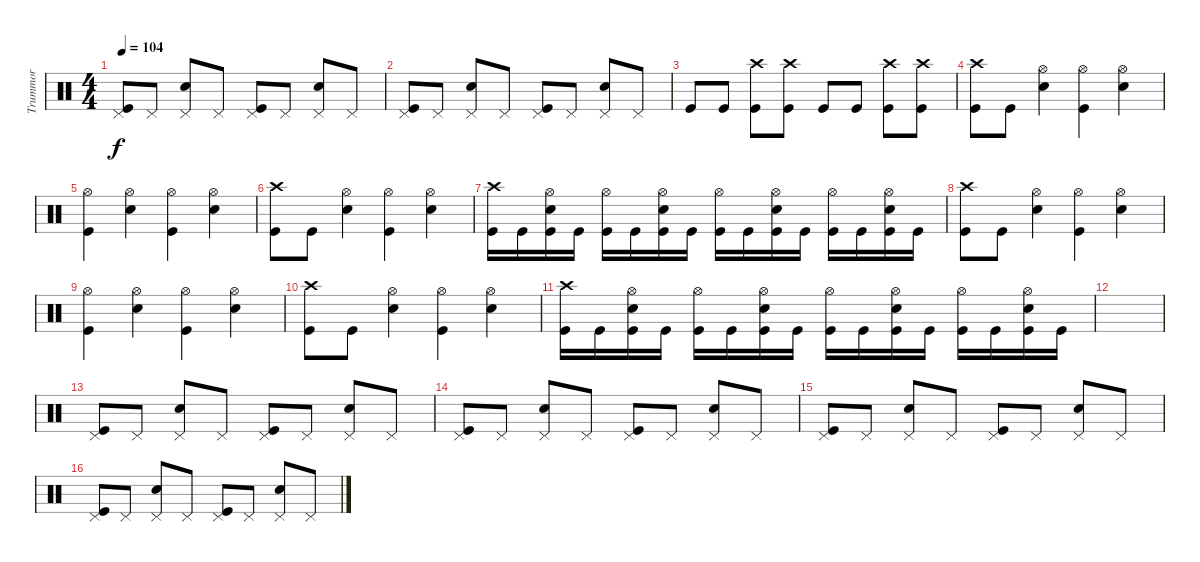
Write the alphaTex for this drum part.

\track ("Trummor" "Trummor") {instrument percussion}
\staff {score}
\articulation defaults
\ts (4 4)
\tempo 104
\clef neutral
\ks c
("Pedal Hi-Hat (hit)" "Kick (hit)").8{dy f} "Pedal Hi-Hat (hit)".8 ("Pedal Hi-Hat (hit)" "Snare (hit) 2").8 "Pedal Hi-Hat (hit)".8 ("Pedal Hi-Hat (hit)" "Kick (hit)").8 "Pedal Hi-Hat (hit)".8 ("Pedal Hi-Hat (hit)" "Snare (hit) 2").8 "Pedal Hi-Hat (hit)".8 |
("Pedal Hi-Hat (hit)" "Kick (hit)").8 "Pedal Hi-Hat (hit)".8 ("Pedal Hi-Hat (hit)" "Snare (hit) 2").8 "Pedal Hi-Hat (hit)".8 ("Pedal Hi-Hat (hit)" "Kick (hit)").8 "Pedal Hi-Hat (hit)".8 ("Pedal Hi-Hat (hit)" "Snare (hit) 2").8 "Pedal Hi-Hat (hit)".8 |
"Kick (hit)".8 "Kick (hit)".8 ("Crash high (hit)" "Kick (hit)").8 ("Crash high (hit)" "Kick (hit)").8 "Kick (hit)".8 "Kick (hit)".8 ("Crash high (hit)" "Kick (hit)").8 ("Crash high (hit)" "Kick (hit)").8 |
("Crash high (hit)" "Kick (hit)").8 "Kick (hit)".8 ("Hi-Hat (open)" "Snare (hit) 2").4 ("Hi-Hat (open)" "Kick (hit)").4 ("Hi-Hat (open)" "Snare (hit) 2").4 |
("Hi-Hat (open)" "Kick (hit)").4 ("Hi-Hat (open)" "Snare (hit) 2").4 ("Hi-Hat (open)" "Kick (hit)").4 ("Hi-Hat (open)" "Snare (hit) 2").4 |
("Crash high (hit)" "Kick (hit)").8 "Kick (hit)".8 ("Hi-Hat (open)" "Snare (hit) 2").4 ("Hi-Hat (open)" "Kick (hit)").4 ("Hi-Hat (open)" "Snare (hit) 2").4 |
("Crash high (hit)" "Kick (hit)").16 "Kick (hit)".16 ("Hi-Hat (open)" "Electric Snare (hit)" "Kick (hit)").16 "Kick (hit)".16 ("Hi-Hat (open)" "Kick (hit)").16 "Kick (hit)".16 ("Hi-Hat (open)" "Electric Snare (hit)" "Kick (hit)").16 "Kick (hit)".16 ("Hi-Hat (open)" "Kick (hit)").16 "Kick (hit)".16 ("Hi-Hat (open)" "Electric Snare (hit)" "Kick (hit)").16 "Kick (hit)".16 ("Hi-Hat (open)" "Kick (hit)").16 "Kick (hit)".16 ("Hi-Hat (open)" "Electric Snare (hit)" "Kick (hit)").16 "Kick (hit)".16 |
("Crash high (hit)" "Kick (hit)").8 "Kick (hit)".8 ("Hi-Hat (open)" "Snare (hit) 2").4 ("Hi-Hat (open)" "Kick (hit)").4 ("Hi-Hat (open)" "Snare (hit) 2").4 |
("Hi-Hat (open)" "Kick (hit)").4 ("Hi-Hat (open)" "Snare (hit) 2").4 ("Hi-Hat (open)" "Kick (hit)").4 ("Hi-Hat (open)" "Snare (hit) 2").4 |
("Crash high (hit)" "Kick (hit)").8 "Kick (hit)".8 ("Hi-Hat (open)" "Snare (hit) 2").4 ("Hi-Hat (open)" "Kick (hit)").4 ("Hi-Hat (open)" "Snare (hit) 2").4 |
("Crash high (hit)" "Kick (hit)").16 "Kick (hit)".16 ("Hi-Hat (open)" "Electric Snare (hit)" "Kick (hit)").16 "Kick (hit)".16 ("Hi-Hat (open)" "Kick (hit)").16 "Kick (hit)".16 ("Hi-Hat (open)" "Electric Snare (hit)" "Kick (hit)").16 "Kick (hit)".16 ("Hi-Hat (open)" "Kick (hit)").16 "Kick (hit)".16 ("Hi-Hat (open)" "Electric Snare (hit)" "Kick (hit)").16 "Kick (hit)".16 ("Hi-Hat (open)" "Kick (hit)").16 "Kick (hit)".16 ("Hi-Hat (open)" "Electric Snare (hit)" "Kick (hit)").16 "Kick (hit)".16 |
|
("Pedal Hi-Hat (hit)" "Kick (hit)").8 "Pedal Hi-Hat (hit)".8 ("Pedal Hi-Hat (hit)" "Snare (hit) 2").8 "Pedal Hi-Hat (hit)".8 ("Pedal Hi-Hat (hit)" "Kick (hit)").8 "Pedal Hi-Hat (hit)".8 ("Pedal Hi-Hat (hit)" "Snare (hit) 2").8 "Pedal Hi-Hat (hit)".8 |
("Pedal Hi-Hat (hit)" "Kick (hit)").8 "Pedal Hi-Hat (hit)".8 ("Pedal Hi-Hat (hit)" "Snare (hit) 2").8 "Pedal Hi-Hat (hit)".8 ("Pedal Hi-Hat (hit)" "Kick (hit)").8 "Pedal Hi-Hat (hit)".8 ("Pedal Hi-Hat (hit)" "Snare (hit) 2").8 "Pedal Hi-Hat (hit)".8 |
("Pedal Hi-Hat (hit)" "Kick (hit)").8 "Pedal Hi-Hat (hit)".8 ("Pedal Hi-Hat (hit)" "Snare (hit) 2").8 "Pedal Hi-Hat (hit)".8 ("Pedal Hi-Hat (hit)" "Kick (hit)").8 "Pedal Hi-Hat (hit)".8 ("Pedal Hi-Hat (hit)" "Snare (hit) 2").8 "Pedal Hi-Hat (hit)".8 |
("Pedal Hi-Hat (hit)" "Kick (hit)").8 "Pedal Hi-Hat (hit)".8 ("Pedal Hi-Hat (hit)" "Snare (hit) 2").8 "Pedal Hi-Hat (hit)".8 ("Pedal Hi-Hat (hit)" "Kick (hit)").8 "Pedal Hi-Hat (hit)".8 ("Pedal Hi-Hat (hit)" "Snare (hit) 2").8 "Pedal Hi-Hat (hit)".8
